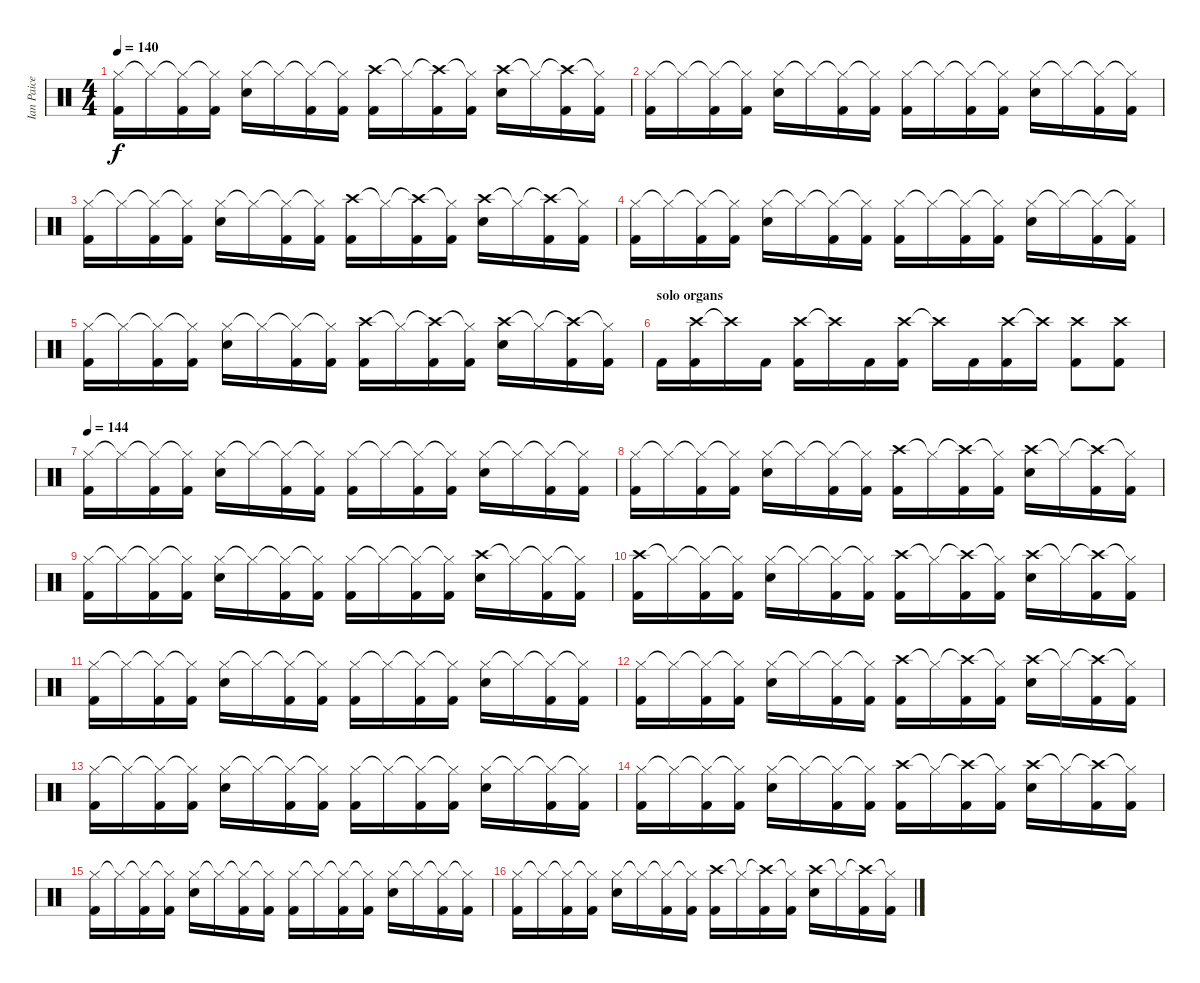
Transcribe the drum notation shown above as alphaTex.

\track ("Ian Paice" "Ian Paice") {instrument percussion}
\staff {score}
\articulation defaults
\ts (4 4)
\tempo 140
\clef neutral
\ks c
("Hi-Hat (closed)" "Kick (hit) 2").16{dy f} "Hi-Hat (closed)"{t}.16 ("Hi-Hat (closed)"{t} "Kick (hit) 2").16 ("Hi-Hat (closed)"{t} "Kick (hit) 2").16 ("Hi-Hat (closed)" "Snare (hit) 2").16 "Hi-Hat (closed)"{t}.16 ("Hi-Hat (closed)"{t} "Kick (hit) 2").16 ("Hi-Hat (closed)"{t} "Kick (hit) 2").16 ("Crash high (hit)" "Kick (hit) 2").16 "Hi-Hat (closed)"{t}.16 ("Crash high (hit)"{t} "Kick (hit) 2").16 ("Hi-Hat (closed)"{t} "Kick (hit) 2").16 ("Crash high (hit)" "Snare (hit) 2").16 "Hi-Hat (closed)"{t}.16 ("Crash high (hit)"{t} "Kick (hit) 2").16 ("Hi-Hat (closed)"{t} "Kick (hit) 2").16 |
("Hi-Hat (closed)" "Kick (hit) 2").16 "Hi-Hat (closed)"{t}.16 ("Hi-Hat (closed)"{t} "Kick (hit) 2").16 ("Hi-Hat (closed)"{t} "Kick (hit) 2").16 ("Hi-Hat (closed)" "Snare (hit) 2").16 "Hi-Hat (closed)"{t}.16 ("Hi-Hat (closed)"{t} "Kick (hit) 2").16 ("Hi-Hat (closed)"{t} "Kick (hit) 2").16 ("Hi-Hat (closed)" "Kick (hit) 2").16 "Hi-Hat (closed)"{t}.16 ("Hi-Hat (closed)"{t} "Kick (hit) 2").16 ("Hi-Hat (closed)"{t} "Kick (hit) 2").16 ("Hi-Hat (closed)" "Snare (hit) 2").16 "Hi-Hat (closed)"{t}.16 ("Hi-Hat (closed)"{t} "Kick (hit) 2").16 ("Hi-Hat (closed)"{t} "Kick (hit) 2").16 |
("Hi-Hat (closed)" "Kick (hit) 2").16 "Hi-Hat (closed)"{t}.16 ("Hi-Hat (closed)"{t} "Kick (hit) 2").16 ("Hi-Hat (closed)"{t} "Kick (hit) 2").16 ("Hi-Hat (closed)" "Snare (hit) 2").16 "Hi-Hat (closed)"{t}.16 ("Hi-Hat (closed)"{t} "Kick (hit) 2").16 ("Hi-Hat (closed)"{t} "Kick (hit) 2").16 ("Crash high (hit)" "Kick (hit) 2").16 "Hi-Hat (closed)"{t}.16 ("Crash high (hit)"{t} "Kick (hit) 2").16 ("Hi-Hat (closed)"{t} "Kick (hit) 2").16 ("Crash high (hit)" "Snare (hit) 2").16 "Hi-Hat (closed)"{t}.16 ("Crash high (hit)"{t} "Kick (hit) 2").16 ("Hi-Hat (closed)"{t} "Kick (hit) 2").16 |
("Hi-Hat (closed)" "Kick (hit) 2").16 "Hi-Hat (closed)"{t}.16 ("Hi-Hat (closed)"{t} "Kick (hit) 2").16 ("Hi-Hat (closed)"{t} "Kick (hit) 2").16 ("Hi-Hat (closed)" "Snare (hit) 2").16 "Hi-Hat (closed)"{t}.16 ("Hi-Hat (closed)"{t} "Kick (hit) 2").16 ("Hi-Hat (closed)"{t} "Kick (hit) 2").16 ("Hi-Hat (closed)" "Kick (hit) 2").16 "Hi-Hat (closed)"{t}.16 ("Hi-Hat (closed)"{t} "Kick (hit) 2").16 ("Hi-Hat (closed)"{t} "Kick (hit) 2").16 ("Hi-Hat (closed)" "Snare (hit) 2").16 "Hi-Hat (closed)"{t}.16 ("Hi-Hat (closed)"{t} "Kick (hit) 2").16 ("Hi-Hat (closed)"{t} "Kick (hit) 2").16 |
("Hi-Hat (closed)" "Kick (hit) 2").16 "Hi-Hat (closed)"{t}.16 ("Hi-Hat (closed)"{t} "Kick (hit) 2").16 ("Hi-Hat (closed)"{t} "Kick (hit) 2").16 ("Hi-Hat (closed)" "Snare (hit) 2").16 "Hi-Hat (closed)"{t}.16 ("Hi-Hat (closed)"{t} "Kick (hit) 2").16 ("Hi-Hat (closed)"{t} "Kick (hit) 2").16 ("Crash high (hit)" "Kick (hit) 2").16 "Hi-Hat (closed)"{t}.16 ("Crash high (hit)"{t} "Kick (hit) 2").16 ("Hi-Hat (closed)"{t} "Kick (hit) 2").16 ("Crash high (hit)" "Snare (hit) 2").16 "Hi-Hat (closed)"{t}.16 ("Crash high (hit)"{t} "Kick (hit) 2").16 ("Hi-Hat (closed)"{t} "Kick (hit) 2").16 |
\section ("" "solo organs")
"Kick (hit) 2".16 ("Crash high (hit)" "Kick (hit) 2").16 "Crash high (hit)"{t}.16 "Kick (hit) 2".16 ("Crash high (hit)" "Kick (hit) 2").16 "Crash high (hit)"{t}.16 "Kick (hit) 2".16 ("Crash high (hit)" "Kick (hit) 2").16 "Crash high (hit)"{t}.16 "Kick (hit) 2".16 ("Crash high (hit)" "Kick (hit) 2").16 "Crash high (hit)"{t}.16 ("Crash high (hit)" "Kick (hit) 2").8 ("Crash high (hit)" "Kick (hit) 2").8 |
\tempo 144
("Hi-Hat (closed)" "Kick (hit) 2").16 "Hi-Hat (closed)"{t}.16 ("Hi-Hat (closed)"{t} "Kick (hit) 2").16 ("Hi-Hat (closed)"{t} "Kick (hit) 2").16 ("Hi-Hat (closed)" "Snare (hit) 2").16 "Hi-Hat (closed)"{t}.16 ("Hi-Hat (closed)"{t} "Kick (hit) 2").16 ("Hi-Hat (closed)"{t} "Kick (hit) 2").16 ("Hi-Hat (closed)" "Kick (hit) 2").16 "Hi-Hat (closed)"{t}.16 ("Hi-Hat (closed)"{t} "Kick (hit) 2").16 ("Hi-Hat (closed)"{t} "Kick (hit) 2").16 ("Hi-Hat (closed)" "Snare (hit) 2").16 "Hi-Hat (closed)"{t}.16 ("Hi-Hat (closed)"{t} "Kick (hit) 2").16 ("Hi-Hat (closed)"{t} "Kick (hit) 2").16 |
("Hi-Hat (closed)" "Kick (hit) 2").16 "Hi-Hat (closed)"{t}.16 ("Hi-Hat (closed)"{t} "Kick (hit) 2").16 ("Hi-Hat (closed)"{t} "Kick (hit) 2").16 ("Hi-Hat (closed)" "Snare (hit) 2").16 "Hi-Hat (closed)"{t}.16 ("Hi-Hat (closed)"{t} "Kick (hit) 2").16 ("Hi-Hat (closed)"{t} "Kick (hit) 2").16 ("Crash high (hit)" "Kick (hit) 2").16 "Hi-Hat (closed)"{t}.16 ("Crash high (hit)"{t} "Kick (hit) 2").16 ("Hi-Hat (closed)"{t} "Kick (hit) 2").16 ("Crash high (hit)" "Snare (hit) 2").16 "Hi-Hat (closed)"{t}.16 ("Crash high (hit)"{t} "Kick (hit) 2").16 ("Hi-Hat (closed)"{t} "Kick (hit) 2").16 |
("Hi-Hat (closed)" "Kick (hit) 2").16 "Hi-Hat (closed)"{t}.16 ("Hi-Hat (closed)"{t} "Kick (hit) 2").16 ("Hi-Hat (closed)"{t} "Kick (hit) 2").16 ("Hi-Hat (closed)" "Snare (hit) 2").16 "Hi-Hat (closed)"{t}.16 ("Hi-Hat (closed)"{t} "Kick (hit) 2").16 ("Hi-Hat (closed)"{t} "Kick (hit) 2").16 ("Hi-Hat (closed)" "Kick (hit) 2").16 "Hi-Hat (closed)"{t}.16 ("Hi-Hat (closed)"{t} "Kick (hit) 2").16 ("Hi-Hat (closed)"{t} "Kick (hit) 2").16 ("Crash high (hit)" "Snare (hit) 2").16 "Hi-Hat (closed)"{t}.16 ("Hi-Hat (closed)"{t} "Kick (hit) 2").16 ("Hi-Hat (closed)"{t} "Kick (hit) 2").16 |
("Crash high (hit)" "Kick (hit) 2").16 "Hi-Hat (closed)"{t}.16 ("Hi-Hat (closed)"{t} "Kick (hit) 2").16 ("Hi-Hat (closed)"{t} "Kick (hit) 2").16 ("Hi-Hat (closed)" "Snare (hit) 2").16 "Hi-Hat (closed)"{t}.16 ("Hi-Hat (closed)"{t} "Kick (hit) 2").16 ("Hi-Hat (closed)"{t} "Kick (hit) 2").16 ("Crash high (hit)" "Kick (hit) 2").16 "Hi-Hat (closed)"{t}.16 ("Crash high (hit)"{t} "Kick (hit) 2").16 ("Hi-Hat (closed)"{t} "Kick (hit) 2").16 ("Crash high (hit)" "Snare (hit) 2").16 "Hi-Hat (closed)"{t}.16 ("Crash high (hit)"{t} "Kick (hit) 2").16 ("Hi-Hat (closed)"{t} "Kick (hit) 2").16 |
("Hi-Hat (closed)" "Kick (hit) 2").16 "Hi-Hat (closed)"{t}.16 ("Hi-Hat (closed)"{t} "Kick (hit) 2").16 ("Hi-Hat (closed)"{t} "Kick (hit) 2").16 ("Hi-Hat (closed)" "Snare (hit) 2").16 "Hi-Hat (closed)"{t}.16 ("Hi-Hat (closed)"{t} "Kick (hit) 2").16 ("Hi-Hat (closed)"{t} "Kick (hit) 2").16 ("Hi-Hat (closed)" "Kick (hit) 2").16 "Hi-Hat (closed)"{t}.16 ("Hi-Hat (closed)"{t} "Kick (hit) 2").16 ("Hi-Hat (closed)"{t} "Kick (hit) 2").16 ("Hi-Hat (closed)" "Snare (hit) 2").16 "Hi-Hat (closed)"{t}.16 ("Hi-Hat (closed)"{t} "Kick (hit) 2").16 ("Hi-Hat (closed)"{t} "Kick (hit) 2").16 |
("Hi-Hat (closed)" "Kick (hit) 2").16 "Hi-Hat (closed)"{t}.16 ("Hi-Hat (closed)"{t} "Kick (hit) 2").16 ("Hi-Hat (closed)"{t} "Kick (hit) 2").16 ("Hi-Hat (closed)" "Snare (hit) 2").16 "Hi-Hat (closed)"{t}.16 ("Hi-Hat (closed)"{t} "Kick (hit) 2").16 ("Hi-Hat (closed)"{t} "Kick (hit) 2").16 ("Crash high (hit)" "Kick (hit) 2").16 "Hi-Hat (closed)"{t}.16 ("Crash high (hit)"{t} "Kick (hit) 2").16 ("Hi-Hat (closed)"{t} "Kick (hit) 2").16 ("Crash high (hit)" "Snare (hit) 2").16 "Hi-Hat (closed)"{t}.16 ("Crash high (hit)"{t} "Kick (hit) 2").16 ("Hi-Hat (closed)"{t} "Kick (hit) 2").16 |
("Hi-Hat (closed)" "Kick (hit) 2").16 "Hi-Hat (closed)"{t}.16 ("Hi-Hat (closed)"{t} "Kick (hit) 2").16 ("Hi-Hat (closed)"{t} "Kick (hit) 2").16 ("Hi-Hat (closed)" "Snare (hit) 2").16 "Hi-Hat (closed)"{t}.16 ("Hi-Hat (closed)"{t} "Kick (hit) 2").16 ("Hi-Hat (closed)"{t} "Kick (hit) 2").16 ("Hi-Hat (closed)" "Kick (hit) 2").16 "Hi-Hat (closed)"{t}.16 ("Hi-Hat (closed)"{t} "Kick (hit) 2").16 ("Hi-Hat (closed)"{t} "Kick (hit) 2").16 ("Hi-Hat (closed)" "Snare (hit) 2").16 "Hi-Hat (closed)"{t}.16 ("Hi-Hat (closed)"{t} "Kick (hit) 2").16 ("Hi-Hat (closed)"{t} "Kick (hit) 2").16 |
("Hi-Hat (closed)" "Kick (hit) 2").16 "Hi-Hat (closed)"{t}.16 ("Hi-Hat (closed)"{t} "Kick (hit) 2").16 ("Hi-Hat (closed)"{t} "Kick (hit) 2").16 ("Hi-Hat (closed)" "Snare (hit) 2").16 "Hi-Hat (closed)"{t}.16 ("Hi-Hat (closed)"{t} "Kick (hit) 2").16 ("Hi-Hat (closed)"{t} "Kick (hit) 2").16 ("Crash high (hit)" "Kick (hit) 2").16 "Hi-Hat (closed)"{t}.16 ("Crash high (hit)"{t} "Kick (hit) 2").16 ("Hi-Hat (closed)"{t} "Kick (hit) 2").16 ("Crash high (hit)" "Snare (hit) 2").16 "Hi-Hat (closed)"{t}.16 ("Crash high (hit)"{t} "Kick (hit) 2").16 ("Hi-Hat (closed)"{t} "Kick (hit) 2").16 |
("Hi-Hat (closed)" "Kick (hit) 2").16 "Hi-Hat (closed)"{t}.16 ("Hi-Hat (closed)"{t} "Kick (hit) 2").16 ("Hi-Hat (closed)"{t} "Kick (hit) 2").16 ("Hi-Hat (closed)" "Snare (hit) 2").16 "Hi-Hat (closed)"{t}.16 ("Hi-Hat (closed)"{t} "Kick (hit) 2").16 ("Hi-Hat (closed)"{t} "Kick (hit) 2").16 ("Hi-Hat (closed)" "Kick (hit) 2").16 "Hi-Hat (closed)"{t}.16 ("Hi-Hat (closed)"{t} "Kick (hit) 2").16 ("Hi-Hat (closed)"{t} "Kick (hit) 2").16 ("Hi-Hat (closed)" "Snare (hit) 2").16 "Hi-Hat (closed)"{t}.16 ("Hi-Hat (closed)"{t} "Kick (hit) 2").16 ("Hi-Hat (closed)"{t} "Kick (hit) 2").16 |
("Hi-Hat (closed)" "Kick (hit) 2").16 "Hi-Hat (closed)"{t}.16 ("Hi-Hat (closed)"{t} "Kick (hit) 2").16 ("Hi-Hat (closed)"{t} "Kick (hit) 2").16 ("Hi-Hat (closed)" "Snare (hit) 2").16 "Hi-Hat (closed)"{t}.16 ("Hi-Hat (closed)"{t} "Kick (hit) 2").16 ("Hi-Hat (closed)"{t} "Kick (hit) 2").16 ("Crash high (hit)" "Kick (hit) 2").16 "Hi-Hat (closed)"{t}.16 ("Crash high (hit)"{t} "Kick (hit) 2").16 ("Hi-Hat (closed)"{t} "Kick (hit) 2").16 ("Crash high (hit)" "Snare (hit) 2").16 "Hi-Hat (closed)"{t}.16 ("Crash high (hit)"{t} "Kick (hit) 2").16 ("Hi-Hat (closed)"{t} "Kick (hit) 2").16
